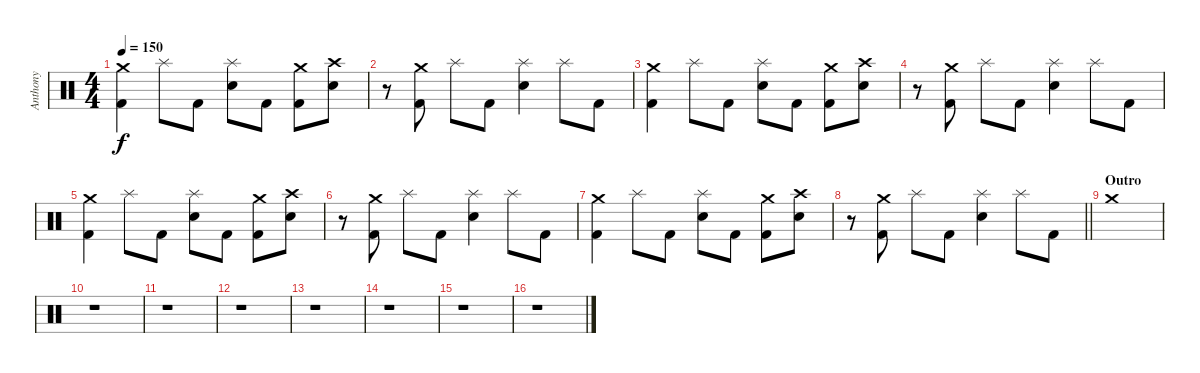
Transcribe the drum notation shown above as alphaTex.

\track ("Anthony" "Anthony") {instrument percussion}
\staff {score}
\articulation defaults
\ts (4 4)
\tempo 150
\clef neutral
\ks c
("Crash medium (hit)" "Kick (hit) 2").4{dy f} "Splash (hit)".8 "Kick (hit) 2".8 ("Splash (hit)" "Electric Snare (hit)").8 "Kick (hit) 2".8 ("Crash medium (hit)" "Kick (hit) 2").8 ("Crash high (hit)" "Electric Snare (hit)").8 |
r.8 ("Crash medium (hit)" "Kick (hit) 2").8 "Splash (hit)".8 "Kick (hit) 2".8 ("Splash (hit)" "Electric Snare (hit)").4 "Splash (hit)".8 "Kick (hit) 2".8 |
("Crash medium (hit)" "Kick (hit) 2").4 "Splash (hit)".8 "Kick (hit) 2".8 ("Splash (hit)" "Electric Snare (hit)").8 "Kick (hit) 2".8 ("Crash medium (hit)" "Kick (hit) 2").8 ("Crash high (hit)" "Electric Snare (hit)").8 |
r.8 ("Crash medium (hit)" "Kick (hit) 2").8 "Splash (hit)".8 "Kick (hit) 2".8 ("Splash (hit)" "Electric Snare (hit)").4 "Splash (hit)".8 "Kick (hit) 2".8 |
("Crash medium (hit)" "Kick (hit) 2").4 "Splash (hit)".8 "Kick (hit) 2".8 ("Splash (hit)" "Electric Snare (hit)").8 "Kick (hit) 2".8 ("Crash medium (hit)" "Kick (hit) 2").8 ("Crash high (hit)" "Electric Snare (hit)").8 |
r.8 ("Crash medium (hit)" "Kick (hit) 2").8 "Splash (hit)".8 "Kick (hit) 2".8 ("Splash (hit)" "Electric Snare (hit)").4 "Splash (hit)".8 "Kick (hit) 2".8 |
("Crash medium (hit)" "Kick (hit) 2").4 "Splash (hit)".8 "Kick (hit) 2".8 ("Splash (hit)" "Electric Snare (hit)").8 "Kick (hit) 2".8 ("Crash medium (hit)" "Kick (hit) 2").8 ("Crash high (hit)" "Electric Snare (hit)").8 |
\barLineRight lightlight
r.8 ("Crash medium (hit)" "Kick (hit) 2").8 "Splash (hit)".8 "Kick (hit) 2".8 ("Splash (hit)" "Electric Snare (hit)").4 "Splash (hit)".8 "Kick (hit) 2".8 |
\section ("" "Outro")
"Crash medium (hit)".1 |
r.1 |
r.1 |
r.1 |
r.1 |
r.1 |
r.1 |
r.1
